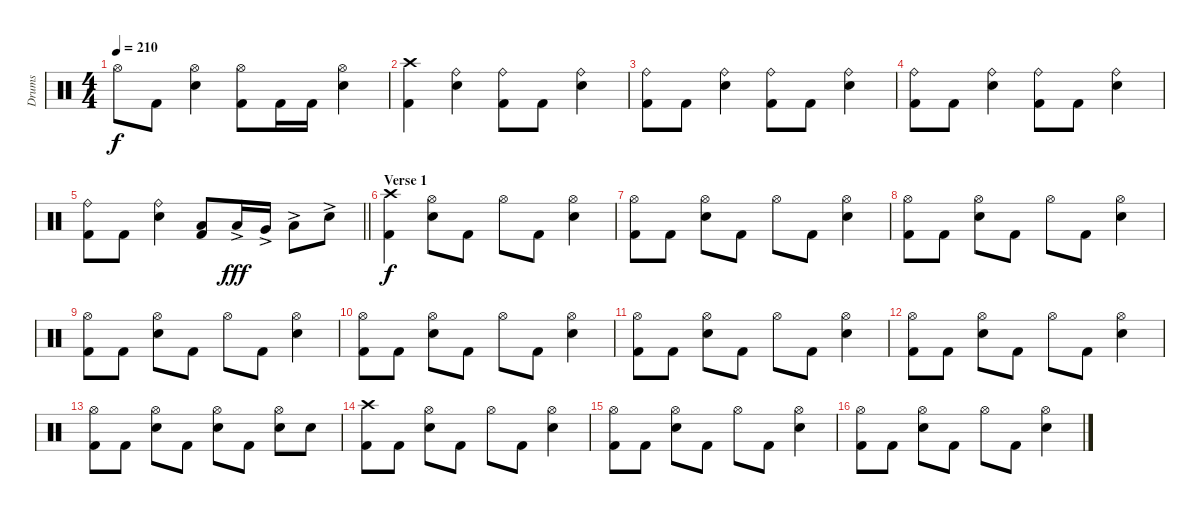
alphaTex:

\track ("Drums" "Drums") {instrument percussion}
\staff {score}
\articulation defaults
\ts (4 4)
\tempo 210
\clef neutral
\ks c "Hi-Hat (open)".8{dy f} "Kick (hit) 2".8
("Hi-Hat (open)" "Snare (hit) 2").4 ("Hi-Hat (open)" "Kick (hit) 2").8 "Kick (hit) 2".16 "Kick (hit) 2".16 ("Hi-Hat (open)" "Snare (hit) 2").4 |
("Crash high (hit)" "Kick (hit) 2").4 ("Ride (bell)" "Snare (hit) 2").4 ("Ride (bell)" "Kick (hit) 2").8 "Kick (hit) 2".8 ("Ride (bell)" "Snare (hit) 2").4 |
("Ride (bell)" "Kick (hit) 2").8 "Kick (hit) 2".8 ("Ride (bell)" "Snare (hit) 2").4 ("Ride (bell)" "Kick (hit) 2").8 "Kick (hit) 2".8 ("Ride (bell)" "Snare (hit) 2").4 |
("Ride (bell)" "Kick (hit) 2").8 "Kick (hit) 2".8 ("Ride (bell)" "Snare (hit) 2").4 ("Ride (bell)" "Kick (hit) 2").8 "Kick (hit) 2".8 ("Ride (bell)" "Snare (hit) 2").4 |
\barLineRight lightlight
("Ride (bell)" "Kick (hit) 2").8 "Kick (hit) 2".8 ("Ride (bell)" "Snare (hit) 2").4 ("Low Tom (hit)" "Kick (hit) 2").8 "Low Tom (hit)"{ac}.16{dy fff} "Very Low Tom (hit)"{ac}.16 "Low Tom (hit)"{ac}.8 "Snare (hit) 2"{ac}.8 |
\section ("" "Verse 1")
("Crash high (hit)" "Kick (hit) 2").4{dy f} ("Hi-Hat (open)" "Snare (hit) 2").8 "Kick (hit) 2".8 "Hi-Hat (open)".8 "Kick (hit) 2".8 ("Hi-Hat (open)" "Snare (hit) 2").4 |
("Hi-Hat (open)" "Kick (hit) 2").8 "Kick (hit) 2".8 ("Hi-Hat (open)" "Snare (hit) 2").8 "Kick (hit) 2".8 "Hi-Hat (open)".8 "Kick (hit) 2".8 ("Hi-Hat (open)" "Snare (hit) 2").4 |
("Hi-Hat (open)" "Kick (hit) 2").8 "Kick (hit) 2".8 ("Hi-Hat (open)" "Snare (hit) 2").8 "Kick (hit) 2".8 "Hi-Hat (open)".8 "Kick (hit) 2".8 ("Hi-Hat (open)" "Snare (hit) 2").4 |
("Hi-Hat (open)" "Kick (hit) 2").8 "Kick (hit) 2".8 ("Hi-Hat (open)" "Snare (hit) 2").8 "Kick (hit) 2".8 "Hi-Hat (open)".8 "Kick (hit) 2".8 ("Hi-Hat (open)" "Snare (hit) 2").4 |
("Hi-Hat (open)" "Kick (hit) 2").8 "Kick (hit) 2".8 ("Hi-Hat (open)" "Snare (hit) 2").8 "Kick (hit) 2".8 "Hi-Hat (open)".8 "Kick (hit) 2".8 ("Hi-Hat (open)" "Snare (hit) 2").4 |
("Hi-Hat (open)" "Kick (hit) 2").8 "Kick (hit) 2".8 ("Hi-Hat (open)" "Snare (hit) 2").8 "Kick (hit) 2".8 "Hi-Hat (open)".8 "Kick (hit) 2".8 ("Hi-Hat (open)" "Snare (hit) 2").4 |
("Hi-Hat (open)" "Kick (hit) 2").8 "Kick (hit) 2".8 ("Hi-Hat (open)" "Snare (hit) 2").8 "Kick (hit) 2".8 "Hi-Hat (open)".8 "Kick (hit) 2".8 ("Hi-Hat (open)" "Snare (hit) 2").4 |
("Hi-Hat (open)" "Kick (hit) 2").8 "Kick (hit) 2".8 ("Hi-Hat (open)" "Snare (hit) 2").8 "Kick (hit) 2".8 ("Hi-Hat (open)" "Snare (hit) 2").8 "Kick (hit) 2".8 ("Hi-Hat (open)" "Snare (hit) 2").8 "Snare (hit) 2".8 |
("Crash high (hit)" "Kick (hit) 2").8 "Kick (hit) 2".8 ("Hi-Hat (open)" "Snare (hit) 2").8 "Kick (hit) 2".8 "Hi-Hat (open)".8 "Kick (hit) 2".8 ("Hi-Hat (open)" "Snare (hit) 2").4 |
("Hi-Hat (open)" "Kick (hit) 2").8 "Kick (hit) 2".8 ("Hi-Hat (open)" "Snare (hit) 2").8 "Kick (hit) 2".8 "Hi-Hat (open)".8 "Kick (hit) 2".8 ("Hi-Hat (open)" "Snare (hit) 2").4 |
("Hi-Hat (open)" "Kick (hit) 2").8 "Kick (hit) 2".8 ("Hi-Hat (open)" "Snare (hit) 2").8 "Kick (hit) 2".8 "Hi-Hat (open)".8 "Kick (hit) 2".8 ("Hi-Hat (open)" "Snare (hit) 2").4
